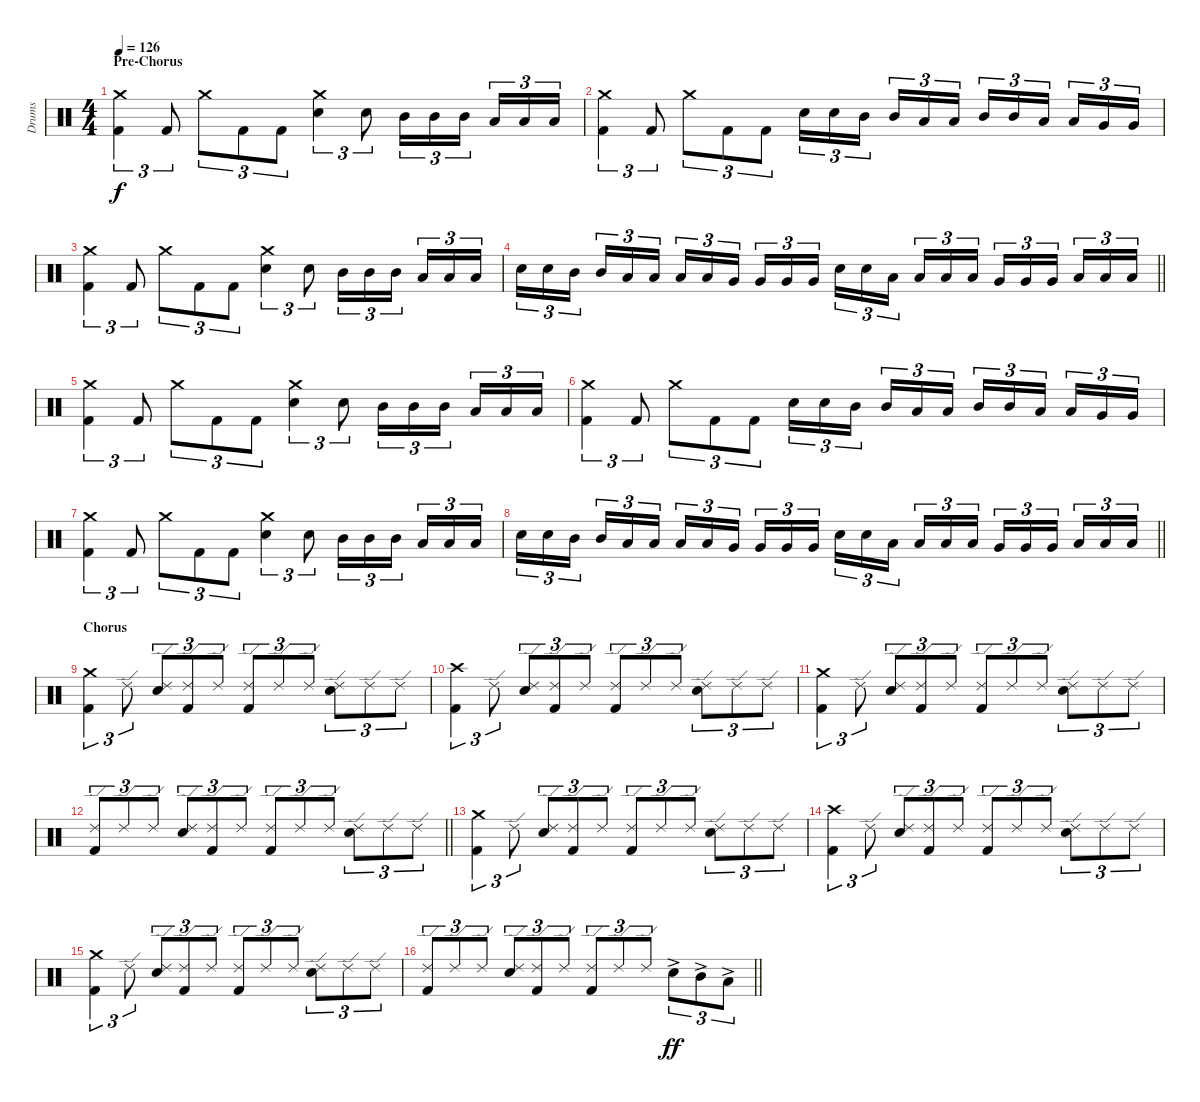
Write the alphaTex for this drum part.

\track ("Drums" "Drums") {instrument percussion}
\staff {score}
\articulation defaults
\ts (4 4)
\section ("" "Pre-Chorus")
\tempo 126
\clef neutral
\ks c
("Kick (hit) 2" "Crash medium (hit)").4{tu (3 2) dy f} "Kick (hit) 2".8{tu (3 2)} "Crash medium (hit)".8{tu (3 2)} "Kick (hit) 2".8{tu (3 2)} "Kick (hit) 2".8{tu (3 2)} ("Snare (hit) 2" "Crash medium (hit)").4{tu (3 2)} "Snare (hit) 2".8{tu (3 2)} "Mid Tom (hit)".16{tu (3 2)} "Mid Tom (hit)".16{tu (3 2)} "Mid Tom (hit)".16{tu (3 2) beam splitsecondary} "Low Tom (hit)".16{tu (3 2)} "Low Tom (hit)".16{tu (3 2)} "Low Tom (hit)".16{tu (3 2)} |
("Kick (hit) 2" "Crash medium (hit)").4{tu (3 2)} "Kick (hit) 2".8{tu (3 2)} "Crash medium (hit)".8{tu (3 2)} "Kick (hit) 2".8{tu (3 2)} "Kick (hit) 2".8{tu (3 2)} "Snare (hit) 2".16{tu (3 2)} "Snare (hit) 2".16{tu (3 2)} "Mid Tom (hit)".16{tu (3 2) beam splitsecondary} "Mid Tom (hit)".16{tu (3 2)} "Low Tom (hit)".16{tu (3 2)} "Low Tom (hit)".16{tu (3 2)} "Mid Tom (hit)".16{tu (3 2)} "Mid Tom (hit)".16{tu (3 2)} "Low Tom (hit)".16{tu (3 2) beam splitsecondary} "Low Tom (hit)".16{tu (3 2)} "Very Low Tom (hit)".16{tu (3 2)} "Very Low Tom (hit)".16{tu (3 2)} |
("Kick (hit) 2" "Crash medium (hit)").4{tu (3 2)} "Kick (hit) 2".8{tu (3 2)} "Crash medium (hit)".8{tu (3 2)} "Kick (hit) 2".8{tu (3 2)} "Kick (hit) 2".8{tu (3 2)} ("Snare (hit) 2" "Crash medium (hit)").4{tu (3 2)} "Snare (hit) 2".8{tu (3 2)} "Mid Tom (hit)".16{tu (3 2)} "Mid Tom (hit)".16{tu (3 2)} "Mid Tom (hit)".16{tu (3 2) beam splitsecondary} "Low Tom (hit)".16{tu (3 2)} "Low Tom (hit)".16{tu (3 2)} "Low Tom (hit)".16{tu (3 2)} |
\barLineRight lightlight "Snare (hit) 2".16{tu (3 2)} "Snare (hit) 2".16{tu (3 2)} "Mid Tom (hit)".16{tu (3 2) beam splitsecondary} "Mid Tom (hit)".16{tu (3 2)} "Low Tom (hit)".16{tu (3 2)} "Low Tom (hit)".16{tu (3 2)} "Low Tom (hit)".16{tu (3 2)} "Low Tom (hit)".16{tu (3 2)} "Very Low Tom (hit)".16{tu (3 2) beam splitsecondary} "Very Low Tom (hit)".16{tu (3 2)} "Very Low Tom (hit)".16{tu (3 2)} "Very Low Tom (hit)".16{tu (3 2)} "Snare (hit) 2".16{tu (3 2)} "Snare (hit) 2".16{tu (3 2)} "Low Tom (hit)".16{tu (3 2) beam splitsecondary} "Low Tom (hit)".16{tu (3 2)} "Low Tom (hit)".16{tu (3 2)} "Low Tom (hit)".16{tu (3 2)} "Very Low Tom (hit)".16{tu (3 2)} "Very Low Tom (hit)".16{tu (3 2)} "Very Low Tom (hit)".16{tu (3 2) beam splitsecondary} "Low Floor Tom (hit)".16{tu (3 2)} "Low Floor Tom (hit)".16{tu (3 2)} "Low Floor Tom (hit)".16{tu (3 2)}
|
\section ("" "")
("Kick (hit) 2" "Crash medium (hit)").4{tu (3 2)} "Kick (hit) 2".8{tu (3 2)} "Crash medium (hit)".8{tu (3 2)} "Kick (hit) 2".8{tu (3 2)} "Kick (hit) 2".8{tu (3 2)} ("Snare (hit) 2" "Crash medium (hit)").4{tu (3 2)} "Snare (hit) 2".8{tu (3 2)} "Mid Tom (hit)".16{tu (3 2)} "Mid Tom (hit)".16{tu (3 2)} "Mid Tom (hit)".16{tu (3 2) beam splitsecondary} "Low Tom (hit)".16{tu (3 2)} "Low Tom (hit)".16{tu (3 2)} "Low Tom (hit)".16{tu (3 2)} |
("Kick (hit) 2" "Crash medium (hit)").4{tu (3 2)} "Kick (hit) 2".8{tu (3 2)} "Crash medium (hit)".8{tu (3 2)} "Kick (hit) 2".8{tu (3 2)} "Kick (hit) 2".8{tu (3 2)} "Snare (hit) 2".16{tu (3 2)} "Snare (hit) 2".16{tu (3 2)} "Mid Tom (hit)".16{tu (3 2) beam splitsecondary} "Mid Tom (hit)".16{tu (3 2)} "Low Tom (hit)".16{tu (3 2)} "Low Tom (hit)".16{tu (3 2)} "Mid Tom (hit)".16{tu (3 2)} "Mid Tom (hit)".16{tu (3 2)} "Low Tom (hit)".16{tu (3 2) beam splitsecondary} "Low Tom (hit)".16{tu (3 2)} "Very Low Tom (hit)".16{tu (3 2)} "Very Low Tom (hit)".16{tu (3 2)} |
("Kick (hit) 2" "Crash medium (hit)").4{tu (3 2)} "Kick (hit) 2".8{tu (3 2)} "Crash medium (hit)".8{tu (3 2)} "Kick (hit) 2".8{tu (3 2)} "Kick (hit) 2".8{tu (3 2)} ("Snare (hit) 2" "Crash medium (hit)").4{tu (3 2)} "Snare (hit) 2".8{tu (3 2)} "Mid Tom (hit)".16{tu (3 2)} "Mid Tom (hit)".16{tu (3 2)} "Mid Tom (hit)".16{tu (3 2) beam splitsecondary} "Low Tom (hit)".16{tu (3 2)} "Low Tom (hit)".16{tu (3 2)} "Low Tom (hit)".16{tu (3 2)} |
\barLineRight lightlight "Snare (hit) 2".16{tu (3 2)} "Snare (hit) 2".16{tu (3 2)} "Mid Tom (hit)".16{tu (3 2) beam splitsecondary} "Mid Tom (hit)".16{tu (3 2)} "Low Tom (hit)".16{tu (3 2)} "Low Tom (hit)".16{tu (3 2)} "Low Tom (hit)".16{tu (3 2)} "Low Tom (hit)".16{tu (3 2)} "Very Low Tom (hit)".16{tu (3 2) beam splitsecondary} "Very Low Tom (hit)".16{tu (3 2)} "Very Low Tom (hit)".16{tu (3 2)} "Very Low Tom (hit)".16{tu (3 2)} "Snare (hit) 2".16{tu (3 2)} "Snare (hit) 2".16{tu (3 2)} "Low Tom (hit)".16{tu (3 2) beam splitsecondary} "Low Tom (hit)".16{tu (3 2)} "Low Tom (hit)".16{tu (3 2)} "Low Tom (hit)".16{tu (3 2)} "Very Low Tom (hit)".16{tu (3 2)} "Very Low Tom (hit)".16{tu (3 2)} "Very Low Tom (hit)".16{tu (3 2) beam splitsecondary} "Low Floor Tom (hit)".16{tu (3 2)} "Low Floor Tom (hit)".16{tu (3 2)} "Low Floor Tom (hit)".16{tu (3 2)}
|
\section ("" "Chorus")
("Kick (hit) 2" "Crash medium (hit)").4{tu (3 2)} "Ride (edge) 2".8{tu (3 2)} ("Snare (hit) 2" "Ride (edge) 2").8{tu (3 2)} ("Kick (hit) 2" "Ride (edge) 2").8{tu (3 2)} "Ride (edge) 2".8{tu (3 2)} ("Kick (hit) 2" "Ride (edge) 2").8{tu (3 2)} "Ride (edge) 2".8{tu (3 2)} "Ride (edge) 2".8{tu (3 2)} ("Snare (hit) 2" "Ride (edge) 2").8{tu (3 2)} "Ride (edge) 2".8{tu (3 2)} "Ride (edge) 2".8{tu (3 2)} |
("Kick (hit) 2" "Crash high (hit)").4{tu (3 2)} "Ride (edge) 2".8{tu (3 2)} ("Snare (hit) 2" "Ride (edge) 2").8{tu (3 2)} ("Kick (hit) 2" "Ride (edge) 2").8{tu (3 2)} "Ride (edge) 2".8{tu (3 2)} ("Kick (hit) 2" "Ride (edge) 2").8{tu (3 2)} "Ride (edge) 2".8{tu (3 2)} "Ride (edge) 2".8{tu (3 2)} ("Snare (hit) 2" "Ride (edge) 2").8{tu (3 2)} "Ride (edge) 2".8{tu (3 2)} "Ride (edge) 2".8{tu (3 2)} |
("Kick (hit) 2" "Crash medium (hit)").4{tu (3 2)} "Ride (edge) 2".8{tu (3 2)} ("Snare (hit) 2" "Ride (edge) 2").8{tu (3 2)} ("Kick (hit) 2" "Ride (edge) 2").8{tu (3 2)} "Ride (edge) 2".8{tu (3 2)} ("Kick (hit) 2" "Ride (edge) 2").8{tu (3 2)} "Ride (edge) 2".8{tu (3 2)} "Ride (edge) 2".8{tu (3 2)} ("Snare (hit) 2" "Ride (edge) 2").8{tu (3 2)} "Ride (edge) 2".8{tu (3 2)} "Ride (edge) 2".8{tu (3 2)} |
\barLineRight lightlight
("Kick (hit) 2" "Ride (edge) 2").8{tu (3 2)} "Ride (edge) 2".8{tu (3 2)} "Ride (edge) 2".8{tu (3 2)} ("Snare (hit) 2" "Ride (edge) 2").8{tu (3 2)} ("Kick (hit) 2" "Ride (edge) 2").8{tu (3 2)} "Ride (edge) 2".8{tu (3 2)} ("Kick (hit) 2" "Ride (edge) 2").8{tu (3 2)} "Ride (edge) 2".8{tu (3 2)} "Ride (edge) 2".8{tu (3 2)} ("Snare (hit) 2" "Ride (edge) 2").8{tu (3 2)} "Ride (edge) 2".8{tu (3 2)} "Ride (edge) 2".8{tu (3 2)} |
\section ("" "")
("Kick (hit) 2" "Crash medium (hit)").4{tu (3 2)} "Ride (edge) 2".8{tu (3 2)} ("Snare (hit) 2" "Ride (edge) 2").8{tu (3 2)} ("Kick (hit) 2" "Ride (edge) 2").8{tu (3 2)} "Ride (edge) 2".8{tu (3 2)} ("Kick (hit) 2" "Ride (edge) 2").8{tu (3 2)} "Ride (edge) 2".8{tu (3 2)} "Ride (edge) 2".8{tu (3 2)} ("Snare (hit) 2" "Ride (edge) 2").8{tu (3 2)} "Ride (edge) 2".8{tu (3 2)} "Ride (edge) 2".8{tu (3 2)} |
("Kick (hit) 2" "Crash high (hit)").4{tu (3 2)} "Ride (edge) 2".8{tu (3 2)} ("Snare (hit) 2" "Ride (edge) 2").8{tu (3 2)} ("Kick (hit) 2" "Ride (edge) 2").8{tu (3 2)} "Ride (edge) 2".8{tu (3 2)} ("Kick (hit) 2" "Ride (edge) 2").8{tu (3 2)} "Ride (edge) 2".8{tu (3 2)} "Ride (edge) 2".8{tu (3 2)} ("Snare (hit) 2" "Ride (edge) 2").8{tu (3 2)} "Ride (edge) 2".8{tu (3 2)} "Ride (edge) 2".8{tu (3 2)} |
("Kick (hit) 2" "Crash medium (hit)").4{tu (3 2)} "Ride (edge) 2".8{tu (3 2)} ("Snare (hit) 2" "Ride (edge) 2").8{tu (3 2)} ("Kick (hit) 2" "Ride (edge) 2").8{tu (3 2)} "Ride (edge) 2".8{tu (3 2)} ("Kick (hit) 2" "Ride (edge) 2").8{tu (3 2)} "Ride (edge) 2".8{tu (3 2)} "Ride (edge) 2".8{tu (3 2)} ("Snare (hit) 2" "Ride (edge) 2").8{tu (3 2)} "Ride (edge) 2".8{tu (3 2)} "Ride (edge) 2".8{tu (3 2)} |
\barLineRight lightlight
("Kick (hit) 2" "Ride (edge) 2").8{tu (3 2)} "Ride (edge) 2".8{tu (3 2)} "Ride (edge) 2".8{tu (3 2)} ("Snare (hit) 2" "Ride (edge) 2").8{tu (3 2)} ("Kick (hit) 2" "Ride (edge) 2").8{tu (3 2)} "Ride (edge) 2".8{tu (3 2)} ("Kick (hit) 2" "Ride (edge) 2").8{tu (3 2)} "Ride (edge) 2".8{tu (3 2)} "Ride (edge) 2".8{tu (3 2)} "Snare (hit) 2"{ac}.8{tu (3 2) dy ff} "Mid Tom (hit)"{ac}.8{tu (3 2)} "Low Tom (hit)"{ac}.8{tu (3 2)}
